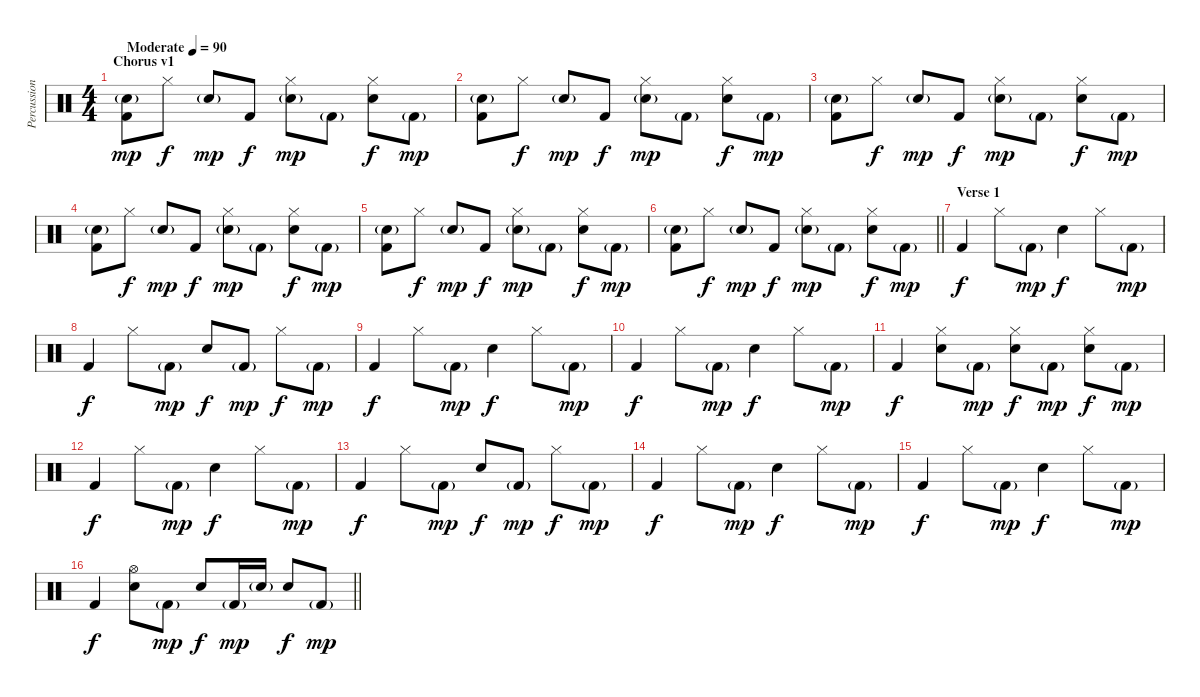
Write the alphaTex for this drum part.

\track ("Percussion" "Percussion") {instrument percussion}
\staff {score}
\articulation defaults
\ts (4 4)
\section ("" "Chorus v1")
\tempo (90 "Moderate")
\clef neutral
\ks c
("Snare (hit) 2"{g} "Kick (hit) 2").8{dy mp} "Hi-Hat (closed)".8{dy f} "Snare (hit) 2"{g}.8{dy mp} "Kick (hit) 2".8{dy f} ("Hi-Hat (closed)" "Snare (hit) 2"{g}).8{dy mp} "Kick (hit) 2"{g}.8 ("Hi-Hat (closed)" "Snare (hit) 2").8{dy f} "Kick (hit) 2"{g}.8{dy mp} |
("Snare (hit) 2"{g} "Kick (hit) 2").8 "Hi-Hat (closed)".8{dy f} "Snare (hit) 2"{g}.8{dy mp} "Kick (hit) 2".8{dy f} ("Hi-Hat (closed)" "Snare (hit) 2"{g}).8{dy mp} "Kick (hit) 2"{g}.8 ("Hi-Hat (closed)" "Snare (hit) 2").8{dy f} "Kick (hit) 2"{g}.8{dy mp} |
("Snare (hit) 2"{g} "Kick (hit) 2").8 "Hi-Hat (closed)".8{dy f} "Snare (hit) 2"{g}.8{dy mp} "Kick (hit) 2".8{dy f} ("Hi-Hat (closed)" "Snare (hit) 2"{g}).8{dy mp} "Kick (hit) 2"{g}.8 ("Hi-Hat (closed)" "Snare (hit) 2").8{dy f} "Kick (hit) 2"{g}.8{dy mp} |
("Snare (hit) 2"{g} "Kick (hit) 2").8 "Hi-Hat (closed)".8{dy f} "Snare (hit) 2"{g}.8{dy mp} "Kick (hit) 2".8{dy f} ("Hi-Hat (closed)" "Snare (hit) 2"{g}).8{dy mp} "Kick (hit) 2"{g}.8 ("Hi-Hat (closed)" "Snare (hit) 2").8{dy f} "Kick (hit) 2"{g}.8{dy mp} |
("Snare (hit) 2"{g} "Kick (hit) 2").8 "Hi-Hat (closed)".8{dy f} "Snare (hit) 2"{g}.8{dy mp} "Kick (hit) 2".8{dy f} ("Hi-Hat (closed)" "Snare (hit) 2"{g}).8{dy mp} "Kick (hit) 2"{g}.8 ("Hi-Hat (closed)" "Snare (hit) 2").8{dy f} "Kick (hit) 2"{g}.8{dy mp} |
\barLineRight lightlight
("Snare (hit) 2"{g} "Kick (hit) 2").8 "Hi-Hat (closed)".8{dy f} "Snare (hit) 2"{g}.8{dy mp} "Kick (hit) 2".8{dy f} ("Hi-Hat (closed)" "Snare (hit) 2"{g}).8{dy mp} "Kick (hit) 2"{g}.8 ("Hi-Hat (closed)" "Snare (hit) 2").8{dy f} "Kick (hit) 2"{g}.8{dy mp} |
\section ("" "Verse 1")
"Kick (hit) 2".4{dy f} "Hi-Hat (closed)".8 "Kick (hit) 2"{g}.8{dy mp} "Snare (hit) 2".4{dy f} "Hi-Hat (closed)".8 "Kick (hit) 2"{g}.8{dy mp} |
"Kick (hit) 2".4{dy f} "Hi-Hat (closed)".8 "Kick (hit) 2"{g}.8{dy mp} "Snare (hit) 2".8{dy f} "Kick (hit) 2"{g}.8{dy mp} "Hi-Hat (closed)".8{dy f} "Kick (hit) 2"{g}.8{dy mp} |
"Kick (hit) 2".4{dy f} "Hi-Hat (closed)".8 "Kick (hit) 2"{g}.8{dy mp} "Snare (hit) 2".4{dy f} "Hi-Hat (closed)".8 "Kick (hit) 2"{g}.8{dy mp} |
"Kick (hit) 2".4{dy f} "Hi-Hat (closed)".8 "Kick (hit) 2"{g}.8{dy mp} "Snare (hit) 2".4{dy f} "Hi-Hat (closed)".8 "Kick (hit) 2"{g}.8{dy mp} |
"Kick (hit) 2".4{dy f} ("Hi-Hat (closed)" "Snare (hit) 2").8 "Kick (hit) 2"{g}.8{dy mp} ("Hi-Hat (closed)" "Snare (hit) 2").8{dy f} "Kick (hit) 2"{g}.8{dy mp} ("Hi-Hat (closed)" "Snare (hit) 2").8{dy f} "Kick (hit) 2"{g}.8{dy mp} |
"Kick (hit) 2".4{dy f} "Hi-Hat (closed)".8 "Kick (hit) 2"{g}.8{dy mp} "Snare (hit) 2".4{dy f} "Hi-Hat (closed)".8 "Kick (hit) 2"{g}.8{dy mp} |
"Kick (hit) 2".4{dy f} "Hi-Hat (closed)".8 "Kick (hit) 2"{g}.8{dy mp} "Snare (hit) 2".8{dy f} "Kick (hit) 2"{g}.8{dy mp} "Hi-Hat (closed)".8{dy f} "Kick (hit) 2"{g}.8{dy mp} |
"Kick (hit) 2".4{dy f} "Hi-Hat (closed)".8 "Kick (hit) 2"{g}.8{dy mp} "Snare (hit) 2".4{dy f} "Hi-Hat (closed)".8 "Kick (hit) 2"{g}.8{dy mp} |
"Kick (hit) 2".4{dy f} "Hi-Hat (closed)".8 "Kick (hit) 2"{g}.8{dy mp} "Snare (hit) 2".4{dy f} "Hi-Hat (closed)".8 "Kick (hit) 2"{g}.8{dy mp} |
\barLineRight lightlight "Kick (hit) 2".4{dy f}
("Hi-Hat (open)" "Snare (hit) 2").8 "Kick (hit) 2"{g}.8{dy mp} "Snare (hit) 2".8{dy f} "Kick (hit) 2"{g}.16{dy mp} "Snare (hit) 2"{g}.16 "Snare (hit) 2".8{dy f} "Kick (hit) 2"{g}.8{dy mp}
